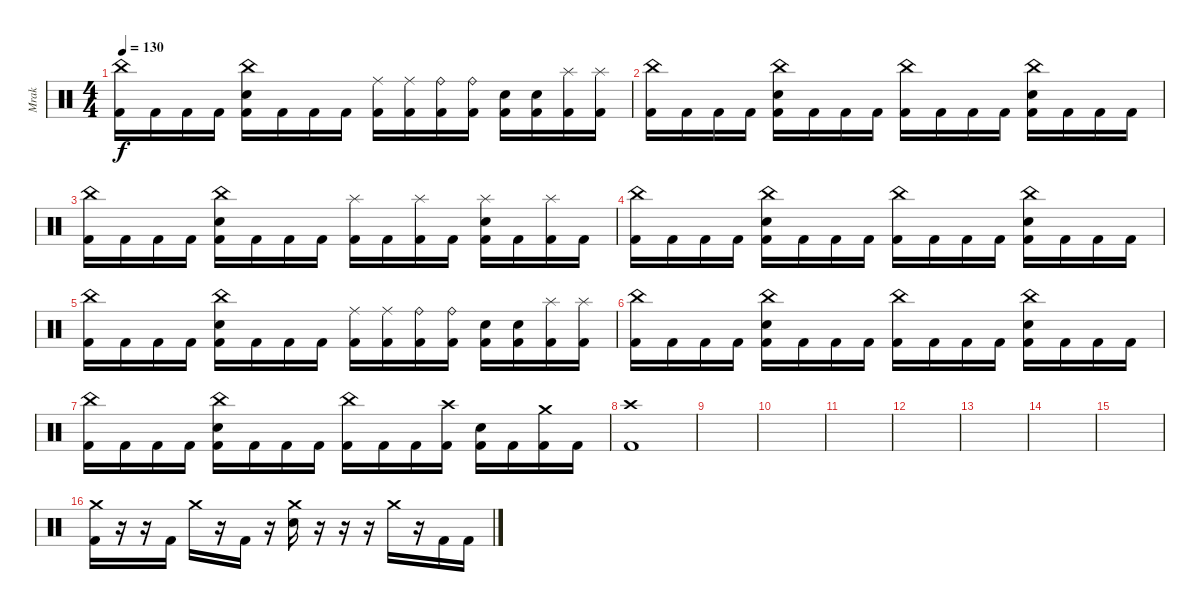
\track ("Mrak" "Mrak") {instrument percussion}
\staff {score}
\articulation defaults
\ts (4 4)
\tempo 130
\clef neutral
\ks c
("China (hit)" "Kick (hit) 2").16{dy f} "Kick (hit) 2".16 "Kick (hit) 2".16 "Kick (hit) 2".16 ("China (hit)" "Electric Snare (hit)" "Kick (hit) 2").16 "Kick (hit) 2".16 "Kick (hit) 2".16 "Kick (hit) 2".16 ("Ride (middle)" "Kick (hit) 2").16 ("Ride (middle)" "Kick (hit) 2").16 ("Ride (bell)" "Kick (hit) 2").16 ("Ride (bell)" "Kick (hit) 2").16 ("Electric Snare (hit)" "Kick (hit) 2").16 ("Electric Snare (hit)" "Kick (hit) 2").16 ("Splash (hit)" "Kick (hit) 2").16 ("Splash (hit)" "Kick (hit) 2").16 |
("China (hit)" "Kick (hit) 2").16 "Kick (hit) 2".16 "Kick (hit) 2".16 "Kick (hit) 2".16 ("China (hit)" "Electric Snare (hit)" "Kick (hit) 2").16 "Kick (hit) 2".16 "Kick (hit) 2".16 "Kick (hit) 2".16 ("China (hit)" "Kick (hit) 2").16 "Kick (hit) 2".16 "Kick (hit) 2".16 "Kick (hit) 2".16 ("China (hit)" "Electric Snare (hit)" "Kick (hit) 2").16 "Kick (hit) 2".16 "Kick (hit) 2".16 "Kick (hit) 2".16 |
("China (hit)" "Kick (hit) 2").16 "Kick (hit) 2".16 "Kick (hit) 2".16 "Kick (hit) 2".16 ("China (hit)" "Electric Snare (hit)" "Kick (hit) 2").16 "Kick (hit) 2".16 "Kick (hit) 2".16 "Kick (hit) 2".16 ("Splash (hit)" "Kick (hit) 2").16 "Kick (hit) 2".16 ("Splash (hit)" "Kick (hit) 2").16 "Kick (hit) 2".16 ("Splash (hit)" "Electric Snare (hit)" "Kick (hit) 2").16 "Kick (hit) 2".16 ("Splash (hit)" "Kick (hit) 2").16 "Kick (hit) 2".16 |
("China (hit)" "Kick (hit) 2").16 "Kick (hit) 2".16 "Kick (hit) 2".16 "Kick (hit) 2".16 ("China (hit)" "Electric Snare (hit)" "Kick (hit) 2").16 "Kick (hit) 2".16 "Kick (hit) 2".16 "Kick (hit) 2".16 ("China (hit)" "Kick (hit) 2").16 "Kick (hit) 2".16 "Kick (hit) 2".16 "Kick (hit) 2".16 ("China (hit)" "Electric Snare (hit)" "Kick (hit) 2").16 "Kick (hit) 2".16 "Kick (hit) 2".16 "Kick (hit) 2".16 |
("China (hit)" "Kick (hit) 2").16 "Kick (hit) 2".16 "Kick (hit) 2".16 "Kick (hit) 2".16 ("China (hit)" "Electric Snare (hit)" "Kick (hit) 2").16 "Kick (hit) 2".16 "Kick (hit) 2".16 "Kick (hit) 2".16 ("Ride (middle)" "Kick (hit) 2").16 ("Ride (middle)" "Kick (hit) 2").16 ("Ride (bell)" "Kick (hit) 2").16 ("Ride (bell)" "Kick (hit) 2").16 ("Electric Snare (hit)" "Kick (hit) 2").16 ("Electric Snare (hit)" "Kick (hit) 2").16 ("Splash (hit)" "Kick (hit) 2").16 ("Splash (hit)" "Kick (hit) 2").16 |
("China (hit)" "Kick (hit) 2").16 "Kick (hit) 2".16 "Kick (hit) 2".16 "Kick (hit) 2".16 ("China (hit)" "Electric Snare (hit)" "Kick (hit) 2").16 "Kick (hit) 2".16 "Kick (hit) 2".16 "Kick (hit) 2".16 ("China (hit)" "Kick (hit) 2").16 "Kick (hit) 2".16 "Kick (hit) 2".16 "Kick (hit) 2".16 ("China (hit)" "Electric Snare (hit)" "Kick (hit) 2").16 "Kick (hit) 2".16 "Kick (hit) 2".16 "Kick (hit) 2".16 |
("China (hit)" "Kick (hit) 2").16 "Kick (hit) 2".16 "Kick (hit) 2".16 "Kick (hit) 2".16 ("China (hit)" "Electric Snare (hit)" "Kick (hit) 2").16 "Kick (hit) 2".16 "Kick (hit) 2".16 "Kick (hit) 2".16 ("China (hit)" "Kick (hit) 2").16 "Kick (hit) 2".16 "Kick (hit) 2".16 ("Crash high (hit)" "Kick (hit) 2").16 ("Electric Snare (hit)" "Kick (hit) 2").16 "Kick (hit) 2".16 ("Crash medium (hit)" "Kick (hit) 2").16 "Kick (hit) 2".16 |
("Crash high (hit)" "Kick (hit) 2").1 |
|
|
|
|
|
|
|
("Crash medium (hit)" "Kick (hit) 2").16 r.16 r.16 "Kick (hit) 2".16 "Crash medium (hit)".16 r.16 "Kick (hit) 2".16 r.16 ("Crash medium (hit)" "Electric Snare (hit)").16 r.16 r.16 r.16 "Crash medium (hit)".16 r.16 "Kick (hit) 2".16 "Kick (hit) 2".16
